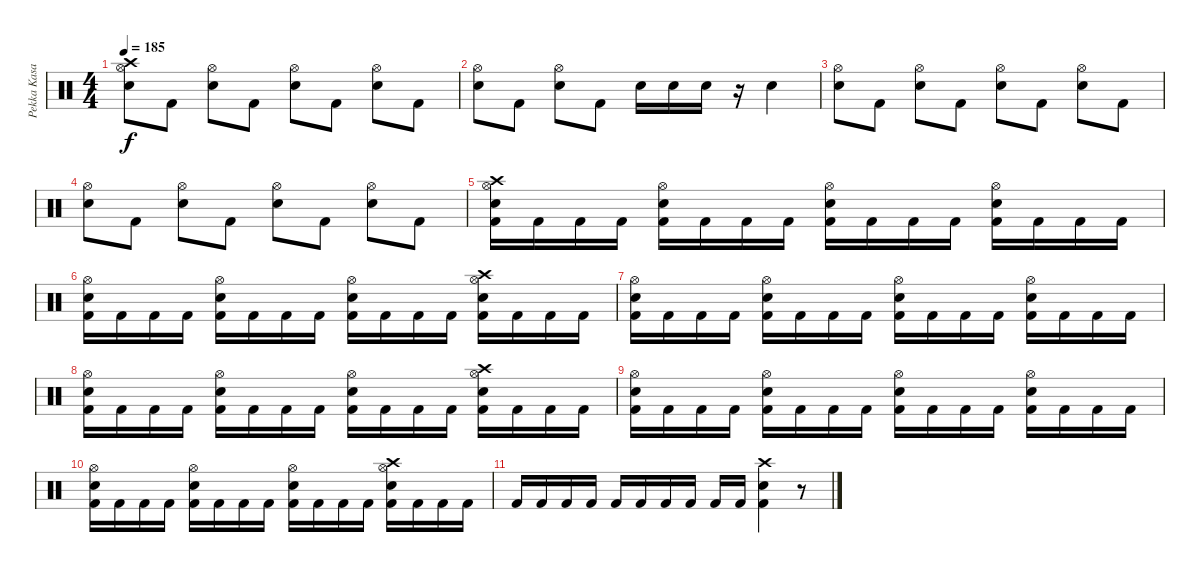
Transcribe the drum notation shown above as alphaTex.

\track ("Pekka Kasari" "Pekka Kasa") {instrument percussion}
\staff {score}
\articulation defaults
\ts (4 4)
\tempo 185
\clef neutral
\ks c
("Crash high (hit)" "Hi-Hat (open)" "Snare (hit) 2").8{dy f} "Kick (hit) 2".8 ("Hi-Hat (open)" "Snare (hit) 2").8 "Kick (hit) 2".8 ("Snare (hit) 2" "Hi-Hat (open)").8 "Kick (hit) 2".8 ("Hi-Hat (open)" "Snare (hit) 2").8 "Kick (hit) 2".8 |
("Hi-Hat (open)" "Snare (hit) 2").8 "Kick (hit) 2".8 ("Hi-Hat (open)" "Snare (hit) 2").8 "Kick (hit) 2".8 "Snare (hit) 2".16 "Snare (hit) 2".16 "Snare (hit) 2".16 r.16 "Snare (hit) 2".4 |
("Hi-Hat (open)" "Snare (hit) 2").8 "Kick (hit) 2".8 ("Hi-Hat (open)" "Snare (hit) 2").8 "Kick (hit) 2".8 ("Snare (hit) 2" "Hi-Hat (open)").8 "Kick (hit) 2".8 ("Hi-Hat (open)" "Snare (hit) 2").8 "Kick (hit) 2".8 |
("Hi-Hat (open)" "Snare (hit) 2").8 "Kick (hit) 2".8 ("Hi-Hat (open)" "Snare (hit) 2").8 "Kick (hit) 2".8 ("Snare (hit) 2" "Hi-Hat (open)").8 "Kick (hit) 2".8 ("Hi-Hat (open)" "Snare (hit) 2").8 "Kick (hit) 2".8 |
("Kick (hit) 2" "Snare (hit) 2" "Hi-Hat (open)" "Crash high (hit)").16 "Kick (hit) 2".16 "Kick (hit) 2".16 "Kick (hit) 2".16 ("Kick (hit) 2" "Snare (hit) 2" "Hi-Hat (open)").16 "Kick (hit) 2".16 "Kick (hit) 2".16 "Kick (hit) 2".16 ("Kick (hit) 2" "Snare (hit) 2" "Hi-Hat (open)").16 "Kick (hit) 2".16 "Kick (hit) 2".16 "Kick (hit) 2".16 ("Kick (hit) 2" "Snare (hit) 2" "Hi-Hat (open)").16 "Kick (hit) 2".16 "Kick (hit) 2".16 "Kick (hit) 2".16 |
("Kick (hit) 2" "Snare (hit) 2" "Hi-Hat (open)").16 "Kick (hit) 2".16 "Kick (hit) 2".16 "Kick (hit) 2".16 ("Kick (hit) 2" "Snare (hit) 2" "Hi-Hat (open)").16 "Kick (hit) 2".16 "Kick (hit) 2".16 "Kick (hit) 2".16 ("Kick (hit) 2" "Snare (hit) 2" "Hi-Hat (open)").16 "Kick (hit) 2".16 "Kick (hit) 2".16 "Kick (hit) 2".16 ("Kick (hit) 2" "Snare (hit) 2" "Hi-Hat (open)" "Crash high (hit)").16 "Kick (hit) 2".16 "Kick (hit) 2".16 "Kick (hit) 2".16 |
("Kick (hit) 2" "Snare (hit) 2" "Hi-Hat (open)").16 "Kick (hit) 2".16 "Kick (hit) 2".16 "Kick (hit) 2".16 ("Kick (hit) 2" "Snare (hit) 2" "Hi-Hat (open)").16 "Kick (hit) 2".16 "Kick (hit) 2".16 "Kick (hit) 2".16 ("Kick (hit) 2" "Snare (hit) 2" "Hi-Hat (open)").16 "Kick (hit) 2".16 "Kick (hit) 2".16 "Kick (hit) 2".16 ("Kick (hit) 2" "Snare (hit) 2" "Hi-Hat (open)").16 "Kick (hit) 2".16 "Kick (hit) 2".16 "Kick (hit) 2".16 |
("Kick (hit) 2" "Snare (hit) 2" "Hi-Hat (open)").16 "Kick (hit) 2".16 "Kick (hit) 2".16 "Kick (hit) 2".16 ("Kick (hit) 2" "Snare (hit) 2" "Hi-Hat (open)").16 "Kick (hit) 2".16 "Kick (hit) 2".16 "Kick (hit) 2".16 ("Kick (hit) 2" "Snare (hit) 2" "Hi-Hat (open)").16 "Kick (hit) 2".16 "Kick (hit) 2".16 "Kick (hit) 2".16 ("Kick (hit) 2" "Snare (hit) 2" "Hi-Hat (open)" "Crash high (hit)").16 "Kick (hit) 2".16 "Kick (hit) 2".16 "Kick (hit) 2".16 |
("Kick (hit) 2" "Snare (hit) 2" "Hi-Hat (open)").16 "Kick (hit) 2".16 "Kick (hit) 2".16 "Kick (hit) 2".16 ("Kick (hit) 2" "Snare (hit) 2" "Hi-Hat (open)").16 "Kick (hit) 2".16 "Kick (hit) 2".16 "Kick (hit) 2".16 ("Kick (hit) 2" "Snare (hit) 2" "Hi-Hat (open)").16 "Kick (hit) 2".16 "Kick (hit) 2".16 "Kick (hit) 2".16 ("Kick (hit) 2" "Snare (hit) 2" "Hi-Hat (open)").16 "Kick (hit) 2".16 "Kick (hit) 2".16 "Kick (hit) 2".16 |
("Kick (hit) 2" "Snare (hit) 2" "Hi-Hat (open)").16 "Kick (hit) 2".16 "Kick (hit) 2".16 "Kick (hit) 2".16 ("Kick (hit) 2" "Snare (hit) 2" "Hi-Hat (open)").16 "Kick (hit) 2".16 "Kick (hit) 2".16 "Kick (hit) 2".16 ("Kick (hit) 2" "Snare (hit) 2" "Hi-Hat (open)").16 "Kick (hit) 2".16 "Kick (hit) 2".16 "Kick (hit) 2".16 ("Kick (hit) 2" "Snare (hit) 2" "Hi-Hat (open)" "Crash high (hit)").16 "Kick (hit) 2".16 "Kick (hit) 2".16 "Kick (hit) 2".16 |
"Kick (hit) 2".16 "Kick (hit) 2".16 "Kick (hit) 2".16 "Kick (hit) 2".16 "Kick (hit) 2".16 "Kick (hit) 2".16 "Kick (hit) 2".16 "Kick (hit) 2".16 "Kick (hit) 2".16 "Kick (hit) 2".16 ("Crash high (hit)" "Snare (hit) 2" "Kick (hit) 2").4 r.8
